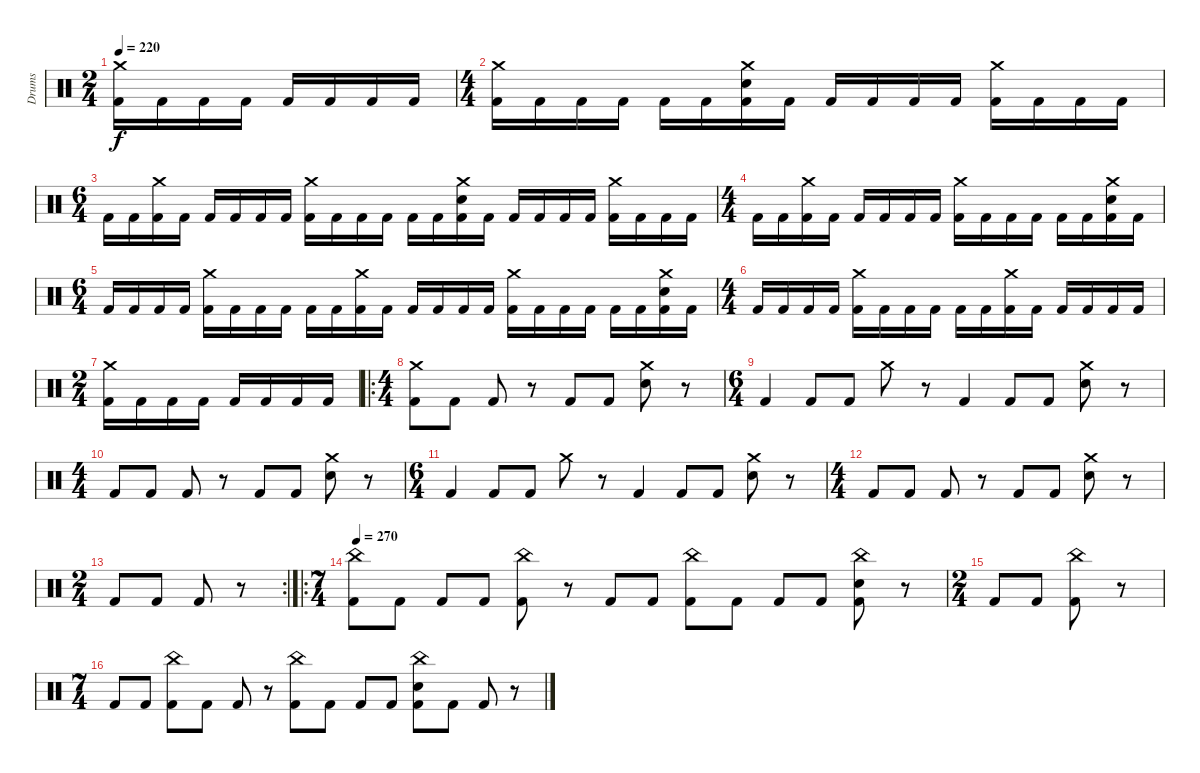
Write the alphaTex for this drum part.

\track ("Drums" "Drums") {instrument percussion}
\staff {score}
\articulation defaults
\ts (2 4)
\tempo 220
\clef neutral
\ks c
("Crash medium (hit)" "Kick (hit) 2").16{dy f} "Kick (hit) 2".16 "Kick (hit) 2".16 "Kick (hit) 2".16 "Kick (hit) 2".16 "Kick (hit) 2".16 "Kick (hit) 2".16 "Kick (hit) 2".16 |
\ts (4 4)
("Crash medium (hit)" "Kick (hit) 2").16 "Kick (hit) 2".16 "Kick (hit) 2".16 "Kick (hit) 2".16 "Kick (hit) 2".16 "Kick (hit) 2".16 ("Crash medium (hit)" "Electric Snare (hit)" "Kick (hit) 2").16 "Kick (hit) 2".16 "Kick (hit) 2".16 "Kick (hit) 2".16 "Kick (hit) 2".16 "Kick (hit) 2".16 ("Crash medium (hit)" "Kick (hit) 2").16 "Kick (hit) 2".16 "Kick (hit) 2".16 "Kick (hit) 2".16 |
\ts (6 4)
"Kick (hit) 2".16 "Kick (hit) 2".16 ("Crash medium (hit)" "Kick (hit) 2").16 "Kick (hit) 2".16 "Kick (hit) 2".16 "Kick (hit) 2".16 "Kick (hit) 2".16 "Kick (hit) 2".16 ("Crash medium (hit)" "Kick (hit) 2").16 "Kick (hit) 2".16 "Kick (hit) 2".16 "Kick (hit) 2".16 "Kick (hit) 2".16 "Kick (hit) 2".16 ("Crash medium (hit)" "Electric Snare (hit)" "Kick (hit) 2").16 "Kick (hit) 2".16 "Kick (hit) 2".16 "Kick (hit) 2".16 "Kick (hit) 2".16 "Kick (hit) 2".16 ("Crash medium (hit)" "Kick (hit) 2").16 "Kick (hit) 2".16 "Kick (hit) 2".16 "Kick (hit) 2".16 |
\ts (4 4)
"Kick (hit) 2".16 "Kick (hit) 2".16 ("Crash medium (hit)" "Kick (hit) 2").16 "Kick (hit) 2".16 "Kick (hit) 2".16 "Kick (hit) 2".16 "Kick (hit) 2".16 "Kick (hit) 2".16 ("Crash medium (hit)" "Kick (hit) 2").16 "Kick (hit) 2".16 "Kick (hit) 2".16 "Kick (hit) 2".16 "Kick (hit) 2".16 "Kick (hit) 2".16 ("Crash medium (hit)" "Electric Snare (hit)" "Kick (hit) 2").16 "Kick (hit) 2".16 |
\ts (6 4)
"Kick (hit) 2".16 "Kick (hit) 2".16 "Kick (hit) 2".16 "Kick (hit) 2".16 ("Crash medium (hit)" "Kick (hit) 2").16 "Kick (hit) 2".16 "Kick (hit) 2".16 "Kick (hit) 2".16 "Kick (hit) 2".16 "Kick (hit) 2".16 ("Crash medium (hit)" "Kick (hit) 2").16 "Kick (hit) 2".16 "Kick (hit) 2".16 "Kick (hit) 2".16 "Kick (hit) 2".16 "Kick (hit) 2".16 ("Crash medium (hit)" "Kick (hit) 2").16 "Kick (hit) 2".16 "Kick (hit) 2".16 "Kick (hit) 2".16 "Kick (hit) 2".16 "Kick (hit) 2".16 ("Crash medium (hit)" "Electric Snare (hit)" "Kick (hit) 2").16 "Kick (hit) 2".16 |
\ts (4 4)
"Kick (hit) 2".16 "Kick (hit) 2".16 "Kick (hit) 2".16 "Kick (hit) 2".16 ("Crash medium (hit)" "Kick (hit) 2").16 "Kick (hit) 2".16 "Kick (hit) 2".16 "Kick (hit) 2".16 "Kick (hit) 2".16 "Kick (hit) 2".16 ("Crash medium (hit)" "Kick (hit) 2").16 "Kick (hit) 2".16 "Kick (hit) 2".16 "Kick (hit) 2".16 "Kick (hit) 2".16 "Kick (hit) 2".16 |
\ts (2 4)
("Crash medium (hit)" "Kick (hit) 2").16 "Kick (hit) 2".16 "Kick (hit) 2".16 "Kick (hit) 2".16 "Kick (hit) 2".16 "Kick (hit) 2".16 "Kick (hit) 2".16 "Kick (hit) 2".16 |
\ro
\ts (4 4)
("Crash medium (hit)" "Kick (hit) 2").8 "Kick (hit) 2".8 "Kick (hit) 2".8 r.8 "Kick (hit) 2".8 "Kick (hit) 2".8 ("Crash medium (hit)" "Electric Snare (hit)").8 r.8 |
\ts (6 4)
"Kick (hit) 2".4 "Kick (hit) 2".8 "Kick (hit) 2".8 "Crash medium (hit)".8 r.8 "Kick (hit) 2".4 "Kick (hit) 2".8 "Kick (hit) 2".8 ("Crash medium (hit)" "Electric Snare (hit)").8 r.8 |
\ts (4 4)
"Kick (hit) 2".8 "Kick (hit) 2".8 "Kick (hit) 2".8 r.8 "Kick (hit) 2".8 "Kick (hit) 2".8 ("Crash medium (hit)" "Electric Snare (hit)").8 r.8 |
\ts (6 4)
"Kick (hit) 2".4 "Kick (hit) 2".8 "Kick (hit) 2".8 "Crash medium (hit)".8 r.8 "Kick (hit) 2".4 "Kick (hit) 2".8 "Kick (hit) 2".8 ("Crash medium (hit)" "Electric Snare (hit)").8 r.8 |
\ts (4 4)
"Kick (hit) 2".8 "Kick (hit) 2".8 "Kick (hit) 2".8 r.8 "Kick (hit) 2".8 "Kick (hit) 2".8 ("Crash medium (hit)" "Electric Snare (hit)").8 r.8 |
\rc 2
\ts (2 4)
"Kick (hit) 2".8 "Kick (hit) 2".8 "Kick (hit) 2".8 r.8 |
\ro
\ts (7 4)
\tempo 270
("China (hit)" "Kick (hit) 2").8 "Kick (hit) 2".8 "Kick (hit) 2".8 "Kick (hit) 2".8 ("China (hit)" "Kick (hit) 2").8 r.8 "Kick (hit) 2".8 "Kick (hit) 2".8 ("China (hit)" "Kick (hit) 2").8 "Kick (hit) 2".8 "Kick (hit) 2".8 "Kick (hit) 2".8 ("China (hit)" "Electric Snare (hit)" "Kick (hit) 2").8 r.8 |
\ts (2 4)
"Kick (hit) 2".8 "Kick (hit) 2".8 ("China (hit)" "Kick (hit) 2").8 r.8 |
\ts (7 4)
"Kick (hit) 2".8 "Kick (hit) 2".8 ("China (hit)" "Kick (hit) 2").8 "Kick (hit) 2".8 "Kick (hit) 2".8 r.8 ("China (hit)" "Kick (hit) 2").8 "Kick (hit) 2".8 "Kick (hit) 2".8 "Kick (hit) 2".8 ("China (hit)" "Electric Snare (hit)" "Kick (hit) 2").8 "Kick (hit) 2".8 "Kick (hit) 2".8 r.8
